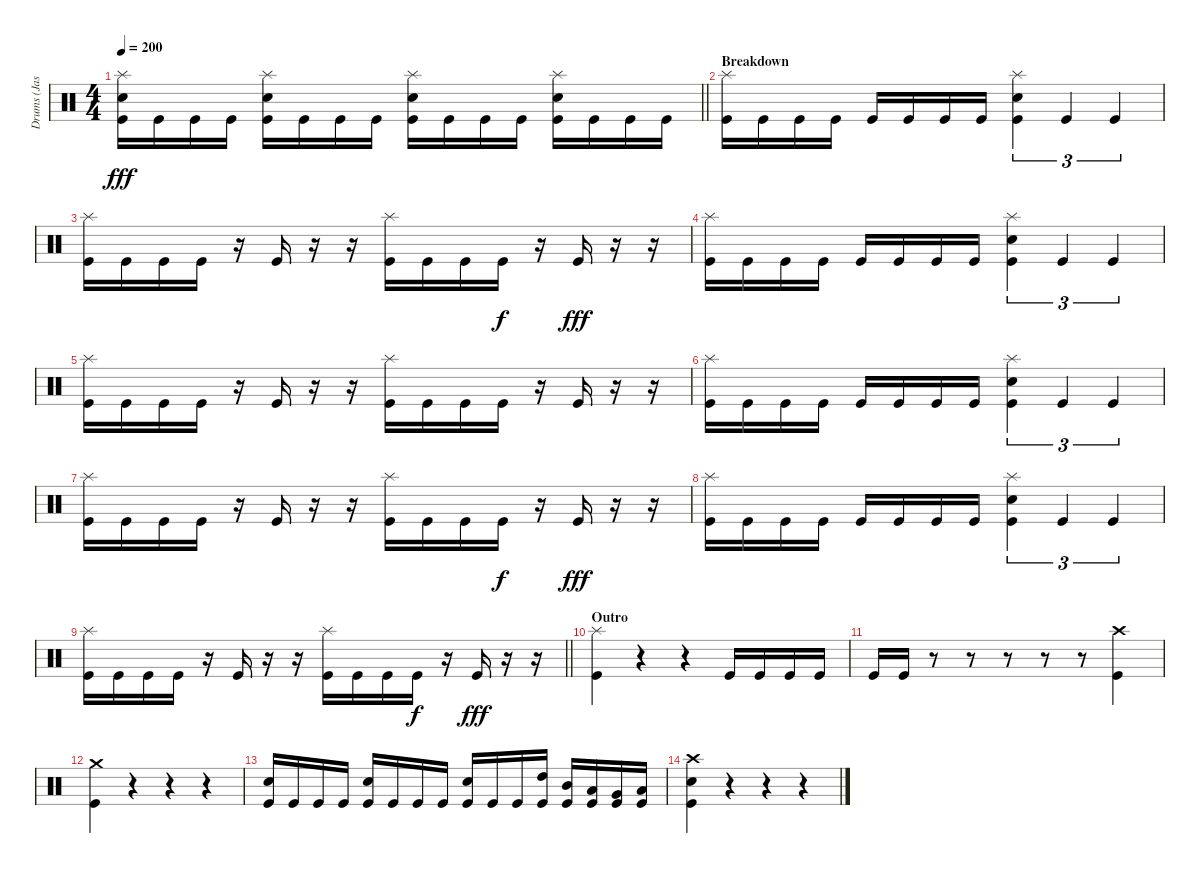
\track ("Drums (Jason Costa)" "Drums (Jas") {instrument percussion}
\staff {score}
\articulation defaults
\ts (4 4)
\tempo 200
\clef neutral
\barLineRight lightlight
\ks c
("Splash (hit)" "Electric Snare (hit)" "Kick (hit)").16{dy fff} "Kick (hit)".16 "Kick (hit)".16 "Kick (hit)".16 ("Splash (hit)" "Electric Snare (hit)" "Kick (hit)").16 "Kick (hit)".16 "Kick (hit)".16 "Kick (hit)".16 ("Splash (hit)" "Electric Snare (hit)" "Kick (hit)").16 "Kick (hit)".16 "Kick (hit)".16 "Kick (hit)".16 ("Splash (hit)" "Electric Snare (hit)" "Kick (hit)").16 "Kick (hit)".16 "Kick (hit)".16 "Kick (hit)".16 |
\section ("" "Breakdown")
("Splash (hit)" "Kick (hit)").16 "Kick (hit)".16 "Kick (hit)".16 "Kick (hit)".16 "Kick (hit)".16 "Kick (hit)".16 "Kick (hit)".16 "Kick (hit)".16 ("Splash (hit)" "Electric Snare (hit)" "Kick (hit)").4{tu (3 2)} "Kick (hit)".4{tu (3 2)} "Kick (hit)".4{tu (3 2)} |
("Splash (hit)" "Kick (hit)").16 "Kick (hit)".16 "Kick (hit)".16 "Kick (hit)".16 r.16 "Kick (hit)".16 r.16 r.16 ("Splash (hit)" "Kick (hit)").16 "Kick (hit)".16 "Kick (hit)".16 "Kick (hit)".16{dy f} r.16 "Kick (hit)".16{dy fff} r.16 r.16 |
("Splash (hit)" "Kick (hit)").16 "Kick (hit)".16 "Kick (hit)".16 "Kick (hit)".16 "Kick (hit)".16 "Kick (hit)".16 "Kick (hit)".16 "Kick (hit)".16 ("Splash (hit)" "Electric Snare (hit)" "Kick (hit)").4{tu (3 2)} "Kick (hit)".4{tu (3 2)} "Kick (hit)".4{tu (3 2)} |
("Splash (hit)" "Kick (hit)").16 "Kick (hit)".16 "Kick (hit)".16 "Kick (hit)".16 r.16 "Kick (hit)".16 r.16 r.16 ("Splash (hit)" "Kick (hit)").16 "Kick (hit)".16 "Kick (hit)".16 "Kick (hit)".16 r.16 "Kick (hit)".16 r.16 r.16 |
("Splash (hit)" "Kick (hit)").16 "Kick (hit)".16 "Kick (hit)".16 "Kick (hit)".16 "Kick (hit)".16 "Kick (hit)".16 "Kick (hit)".16 "Kick (hit)".16 ("Splash (hit)" "Electric Snare (hit)" "Kick (hit)").4{tu (3 2)} "Kick (hit)".4{tu (3 2)} "Kick (hit)".4{tu (3 2)} |
("Splash (hit)" "Kick (hit)").16 "Kick (hit)".16 "Kick (hit)".16 "Kick (hit)".16 r.16 "Kick (hit)".16 r.16 r.16 ("Splash (hit)" "Kick (hit)").16 "Kick (hit)".16 "Kick (hit)".16 "Kick (hit)".16{dy f} r.16 "Kick (hit)".16{dy fff} r.16 r.16 |
("Splash (hit)" "Kick (hit)").16 "Kick (hit)".16 "Kick (hit)".16 "Kick (hit)".16 "Kick (hit)".16 "Kick (hit)".16 "Kick (hit)".16 "Kick (hit)".16 ("Splash (hit)" "Electric Snare (hit)" "Kick (hit)").4{tu (3 2)} "Kick (hit)".4{tu (3 2)} "Kick (hit)".4{tu (3 2)} |
\barLineRight lightlight
("Splash (hit)" "Kick (hit)").16 "Kick (hit)".16 "Kick (hit)".16 "Kick (hit)".16 r.16 "Kick (hit)".16 r.16 r.16 ("Splash (hit)" "Kick (hit)").16 "Kick (hit)".16 "Kick (hit)".16 "Kick (hit)".16{dy f} r.16 "Kick (hit)".16{dy fff} r.16 r.16 |
\section ("" "Outro")
("Splash (hit)" "Kick (hit)").4 r.4 r.4 "Kick (hit)".16 "Kick (hit)".16 "Kick (hit)".16 "Kick (hit)".16 |
"Kick (hit)".16 "Kick (hit)".16 r.8 r.8 r.8 r.8 r.8 ("Crash high (hit)" "Kick (hit)").4 |
("Crash medium (hit)" "Kick (hit)").4 r.4 r.4 r.4 |
("Electric Snare (hit)" "Kick (hit)").16 "Kick (hit)".16 "Kick (hit)".16 "Kick (hit)".16 ("Electric Snare (hit)" "Kick (hit)").16 "Kick (hit)".16 "Kick (hit)".16 "Kick (hit)".16 ("Electric Snare (hit)" "Kick (hit)").16 "Kick (hit)".16 "Kick (hit)".16 ("High Tom (hit)" "Kick (hit)").16 ("Mid Tom (hit)" "Kick (hit)").16 ("Low Tom (hit)" "Kick (hit)").16 ("Very Low Tom (hit)" "Kick (hit)").16 ("Low Floor Tom (hit)" "Kick (hit)").16 |
("Crash high (hit)" "Electric Snare (hit)" "Kick (hit)").4 r.4 r.4 r.4
